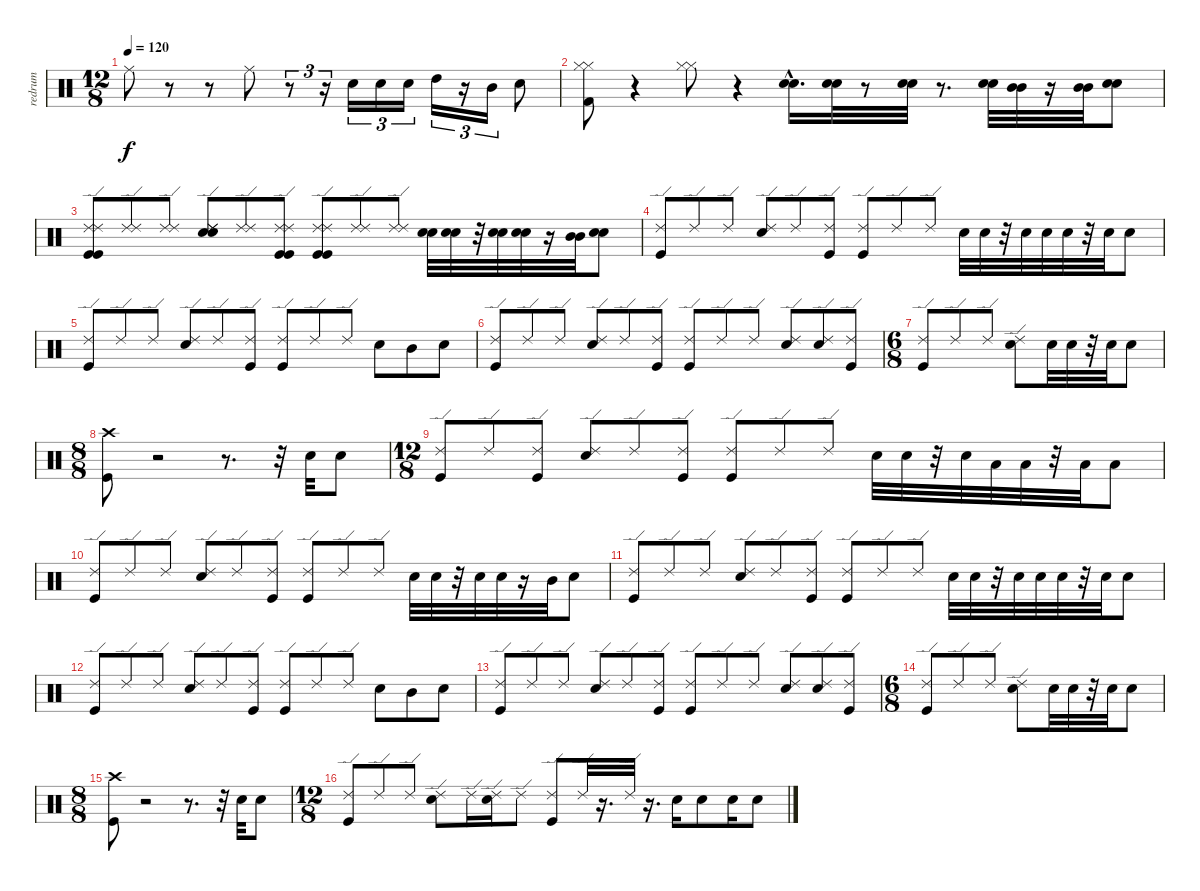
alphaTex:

\track ("redrum" "redrum") {instrument percussion}
\staff {score}
\articulation defaults
\ts (12 8)
\tempo 120
\clef neutral
\ks c "Ride (middle)".8{dy f}
r.8 r.8 "Ride (middle)".8 r.8{tu (3 2)} r.16{tu (3 2)} "Snare (hit) 2".16{tu (3 2)} "Snare (hit) 2".16{tu (3 2)} "Snare (hit) 2".16{tu (3 2)} "High Tom (hit)".16{tu (3 2)} r.16{tu (3 2)} "Mid Tom (hit)".16{tu (3 2)} "Snare (hit) 2".8 |
("Hi-Hat (closed)" "Hi-Hat (closed)" "Kick (hit) 2").8 r.4 ("Hi-Hat (closed)" "Hi-Hat (closed)").8 r.4 ("Electric Snare (hit)"{hac} "Electric Snare (hit)"{hac}).16{d} ("Electric Snare (hit)" "Electric Snare (hit)").32 r.8 ("Electric Snare (hit)" "Electric Snare (hit)").32 r.8{d} ("Electric Snare (hit)" "Electric Snare (hit)").32 ("Mid Tom (hit)" "Mid Tom (hit)").32 r.16 ("Mid Tom (hit)" "Mid Tom (hit)").32 ("Electric Snare (hit)" "Electric Snare (hit)").8 |
("Kick (hit)" "Ride (edge) 2" "Kick (hit)" "Ride (edge) 2").8 ("Ride (edge) 2" "Ride (edge) 2").8 ("Ride (edge) 2" "Ride (edge) 2").8 ("Electric Snare (hit)" "Ride (edge) 2" "Electric Snare (hit)" "Ride (edge) 2").8 ("Ride (edge) 2" "Ride (edge) 2").8 ("Kick (hit)" "Ride (edge) 2" "Kick (hit)" "Ride (edge) 2").8 ("Kick (hit)" "Ride (edge) 2" "Kick (hit)" "Ride (edge) 2").8 ("Ride (edge) 2" "Ride (edge) 2").8 ("Ride (edge) 2" "Ride (edge) 2").8 ("Electric Snare (hit)" "Electric Snare (hit)").32 ("Electric Snare (hit)" "Electric Snare (hit)").32 r.32 ("Electric Snare (hit)" "Electric Snare (hit)").32 ("Electric Snare (hit)" "Electric Snare (hit)").32 r.16 ("Mid Tom (hit)" "Mid Tom (hit)").32 ("Electric Snare (hit)" "Electric Snare (hit)").8 |
("Kick (hit)" "Ride (edge) 2").8 "Ride (edge) 2".8 "Ride (edge) 2".8 ("Electric Snare (hit)" "Ride (edge) 2").8 "Ride (edge) 2".8 ("Kick (hit)" "Ride (edge) 2").8 ("Kick (hit)" "Ride (edge) 2").8 "Ride (edge) 2".8 "Ride (edge) 2".8 "Electric Snare (hit)".32 "Electric Snare (hit)".32 r.32 "Electric Snare (hit)".32 "Electric Snare (hit)".32 "Electric Snare (hit)".32 r.32 "Electric Snare (hit)".32 "Electric Snare (hit)".8 |
("Kick (hit)" "Ride (edge) 2").8 "Ride (edge) 2".8 "Ride (edge) 2".8 ("Electric Snare (hit)" "Ride (edge) 2").8 "Ride (edge) 2".8 ("Kick (hit)" "Ride (edge) 2").8 ("Kick (hit)" "Ride (edge) 2").8 "Ride (edge) 2".8 "Ride (edge) 2".8 "Electric Snare (hit)".8 "Mid Tom (hit)".8 "Electric Snare (hit)".8 |
("Kick (hit)" "Ride (edge) 2").8 "Ride (edge) 2".8 "Ride (edge) 2".8 ("Electric Snare (hit)" "Ride (edge) 2").8 "Ride (edge) 2".8 ("Kick (hit)" "Ride (edge) 2").8 ("Kick (hit)" "Ride (edge) 2").8 "Ride (edge) 2".8 "Ride (edge) 2".8 ("Electric Snare (hit)" "Ride (edge) 2").8 ("Electric Snare (hit)" "Ride (edge) 2").8 ("Kick (hit)" "Ride (edge) 2").8 |
\ts (6 8)
("Kick (hit)" "Ride (edge) 2").8 "Ride (edge) 2".8 "Ride (edge) 2".8 ("Electric Snare (hit)" "Ride (edge) 2").8 "Electric Snare (hit)".32 "Electric Snare (hit)".32 r.32 "Electric Snare (hit)".32 "Electric Snare (hit)".8 |
\ts (8 8)
("Kick (hit)" "Crash high (hit)").8 r.2 r.8{d} r.32 "Electric Snare (hit)".32 "Electric Snare (hit)".8 |
\ts (12 8)
("Kick (hit)" "Ride (edge) 2").8 "Ride (edge) 2".8 ("Kick (hit)" "Ride (edge) 2").8 ("Electric Snare (hit)" "Ride (edge) 2").8 "Ride (edge) 2".8 ("Kick (hit)" "Ride (edge) 2").8 ("Kick (hit)" "Ride (edge) 2").8 "Ride (edge) 2".8 "Ride (edge) 2".8 "Electric Snare (hit)".32 "Electric Snare (hit)".32 r.32 "Electric Snare (hit)".32 "Low Floor Tom (hit)".32 "Low Floor Tom (hit)".32 r.32 "Low Floor Tom (hit)".32 "Low Floor Tom (hit)".8 |
("Kick (hit)" "Ride (edge) 2").8 "Ride (edge) 2".8 "Ride (edge) 2".8 ("Electric Snare (hit)" "Ride (edge) 2").8 "Ride (edge) 2".8 ("Kick (hit)" "Ride (edge) 2").8 ("Kick (hit)" "Ride (edge) 2").8 "Ride (edge) 2".8 "Ride (edge) 2".8 "Electric Snare (hit)".32 "Electric Snare (hit)".32 r.32 "Electric Snare (hit)".32 "Electric Snare (hit)".32 r.16 "Mid Tom (hit)".32 "Electric Snare (hit)".8 |
("Kick (hit)" "Ride (edge) 2").8 "Ride (edge) 2".8 "Ride (edge) 2".8 ("Electric Snare (hit)" "Ride (edge) 2").8 "Ride (edge) 2".8 ("Kick (hit)" "Ride (edge) 2").8 ("Kick (hit)" "Ride (edge) 2").8 "Ride (edge) 2".8 "Ride (edge) 2".8 "Electric Snare (hit)".32 "Electric Snare (hit)".32 r.32 "Electric Snare (hit)".32 "Electric Snare (hit)".32 "Electric Snare (hit)".32 r.32 "Electric Snare (hit)".32 "Electric Snare (hit)".8 |
("Kick (hit)" "Ride (edge) 2").8 "Ride (edge) 2".8 "Ride (edge) 2".8 ("Electric Snare (hit)" "Ride (edge) 2").8 "Ride (edge) 2".8 ("Kick (hit)" "Ride (edge) 2").8 ("Kick (hit)" "Ride (edge) 2").8 "Ride (edge) 2".8 "Ride (edge) 2".8 "Electric Snare (hit)".8 "Mid Tom (hit)".8 "Electric Snare (hit)".8 |
("Kick (hit)" "Ride (edge) 2").8 "Ride (edge) 2".8 "Ride (edge) 2".8 ("Electric Snare (hit)" "Ride (edge) 2").8 "Ride (edge) 2".8 ("Kick (hit)" "Ride (edge) 2").8 ("Kick (hit)" "Ride (edge) 2").8 "Ride (edge) 2".8 "Ride (edge) 2".8 ("Electric Snare (hit)" "Ride (edge) 2").8 ("Electric Snare (hit)" "Ride (edge) 2").8 ("Kick (hit)" "Ride (edge) 2").8 |
\ts (6 8)
("Kick (hit)" "Ride (edge) 2").8 "Ride (edge) 2".8 "Ride (edge) 2".8 ("Electric Snare (hit)" "Ride (edge) 2").8 "Electric Snare (hit)".32 "Electric Snare (hit)".32 r.32 "Electric Snare (hit)".32 "Electric Snare (hit)".8 |
\ts (8 8)
("Kick (hit)" "Crash high (hit)").8 r.2 r.8{d} r.32 "Electric Snare (hit)".32 "Electric Snare (hit)".8 |
\ts (12 8)
("Kick (hit)" "Ride (edge) 2").8 "Ride (edge) 2".8 "Ride (edge) 2".8 ("Ride (edge) 2" "Electric Snare (hit)").8 "Ride (edge) 2".16 ("Electric Snare (hit)" "Ride (edge) 2").16 "Ride (edge) 2".8 ("Kick (hit)" "Ride (edge) 2").8 "Ride (edge) 2".32 r.16{d} "Ride (edge) 2".32 r.16{d} "Electric Snare (hit)".16 "Electric Snare (hit)".8 "Electric Snare (hit)".16 "Electric Snare (hit)".8
